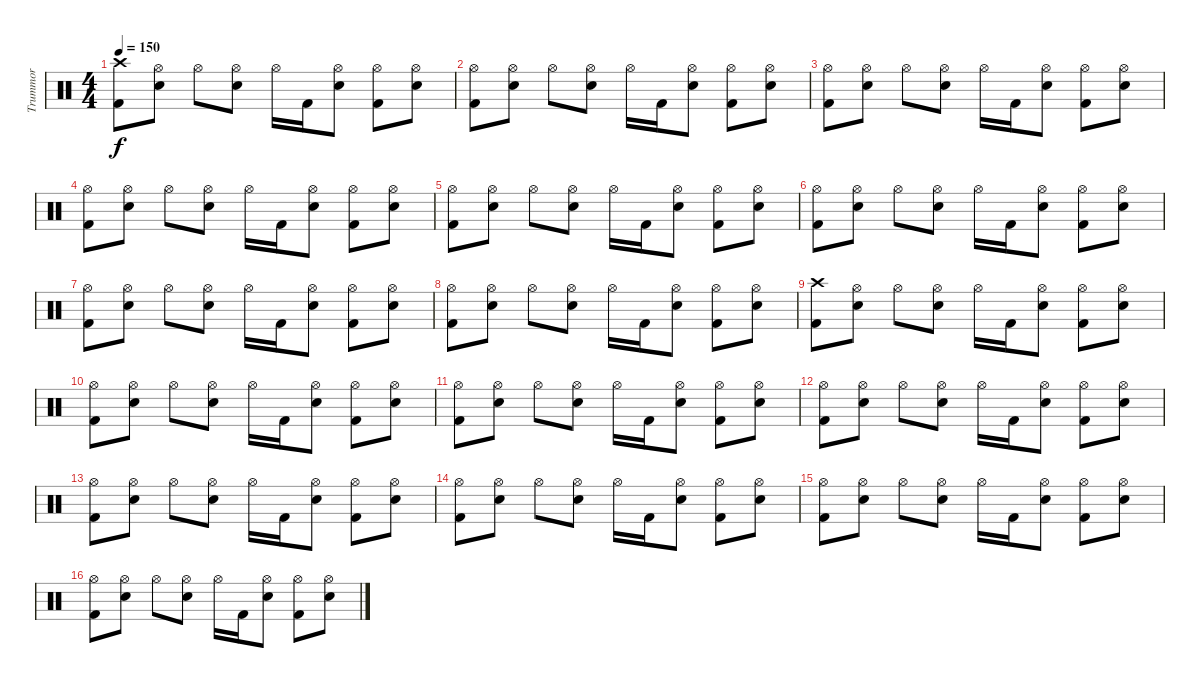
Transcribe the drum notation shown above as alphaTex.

\track ("Trummor" "Trummor") {instrument percussion}
\staff {score}
\articulation defaults
\ts (4 4)
\tempo 150
\clef neutral
\ks c
("Crash high (hit)" "Kick (hit) 2").8{dy f} ("Hi-Hat (open)" "Snare (hit) 2").8 "Hi-Hat (open)".8 ("Hi-Hat (open)" "Snare (hit) 2").8 "Hi-Hat (open)".16 "Kick (hit) 2".16 ("Hi-Hat (open)" "Snare (hit) 2").8 ("Hi-Hat (open)" "Kick (hit) 2").8 ("Hi-Hat (open)" "Snare (hit) 2").8 |
("Hi-Hat (open)" "Kick (hit) 2").8 ("Hi-Hat (open)" "Snare (hit) 2").8 "Hi-Hat (open)".8 ("Hi-Hat (open)" "Snare (hit) 2").8 "Hi-Hat (open)".16 "Kick (hit) 2".16 ("Hi-Hat (open)" "Snare (hit) 2").8 ("Hi-Hat (open)" "Kick (hit) 2").8 ("Hi-Hat (open)" "Snare (hit) 2").8 |
("Hi-Hat (open)" "Kick (hit) 2").8 ("Hi-Hat (open)" "Snare (hit) 2").8 "Hi-Hat (open)".8 ("Hi-Hat (open)" "Snare (hit) 2").8 "Hi-Hat (open)".16 "Kick (hit) 2".16 ("Hi-Hat (open)" "Snare (hit) 2").8 ("Hi-Hat (open)" "Kick (hit) 2").8 ("Hi-Hat (open)" "Snare (hit) 2").8 |
("Hi-Hat (open)" "Kick (hit) 2").8 ("Hi-Hat (open)" "Snare (hit) 2").8 "Hi-Hat (open)".8 ("Hi-Hat (open)" "Snare (hit) 2").8 "Hi-Hat (open)".16 "Kick (hit) 2".16 ("Hi-Hat (open)" "Snare (hit) 2").8 ("Hi-Hat (open)" "Kick (hit) 2").8 ("Hi-Hat (open)" "Snare (hit) 2").8 |
("Hi-Hat (open)" "Kick (hit) 2").8 ("Hi-Hat (open)" "Snare (hit) 2").8 "Hi-Hat (open)".8 ("Hi-Hat (open)" "Snare (hit) 2").8 "Hi-Hat (open)".16 "Kick (hit) 2".16 ("Hi-Hat (open)" "Snare (hit) 2").8 ("Hi-Hat (open)" "Kick (hit) 2").8 ("Hi-Hat (open)" "Snare (hit) 2").8 |
("Hi-Hat (open)" "Kick (hit) 2").8 ("Hi-Hat (open)" "Snare (hit) 2").8 "Hi-Hat (open)".8 ("Hi-Hat (open)" "Snare (hit) 2").8 "Hi-Hat (open)".16 "Kick (hit) 2".16 ("Hi-Hat (open)" "Snare (hit) 2").8 ("Hi-Hat (open)" "Kick (hit) 2").8 ("Hi-Hat (open)" "Snare (hit) 2").8 |
("Hi-Hat (open)" "Kick (hit) 2").8 ("Hi-Hat (open)" "Snare (hit) 2").8 "Hi-Hat (open)".8 ("Hi-Hat (open)" "Snare (hit) 2").8 "Hi-Hat (open)".16 "Kick (hit) 2".16 ("Hi-Hat (open)" "Snare (hit) 2").8 ("Hi-Hat (open)" "Kick (hit) 2").8 ("Hi-Hat (open)" "Snare (hit) 2").8 |
("Hi-Hat (open)" "Kick (hit) 2").8 ("Hi-Hat (open)" "Snare (hit) 2").8 "Hi-Hat (open)".8 ("Hi-Hat (open)" "Snare (hit) 2").8 "Hi-Hat (open)".16 "Kick (hit) 2".16 ("Hi-Hat (open)" "Snare (hit) 2").8 ("Hi-Hat (open)" "Kick (hit) 2").8 ("Hi-Hat (open)" "Snare (hit) 2").8 |
("Crash high (hit)" "Kick (hit) 2").8 ("Hi-Hat (open)" "Snare (hit) 2").8 "Hi-Hat (open)".8 ("Hi-Hat (open)" "Snare (hit) 2").8 "Hi-Hat (open)".16 "Kick (hit) 2".16 ("Hi-Hat (open)" "Snare (hit) 2").8 ("Hi-Hat (open)" "Kick (hit) 2").8 ("Hi-Hat (open)" "Snare (hit) 2").8 |
("Hi-Hat (open)" "Kick (hit) 2").8 ("Hi-Hat (open)" "Snare (hit) 2").8 "Hi-Hat (open)".8 ("Hi-Hat (open)" "Snare (hit) 2").8 "Hi-Hat (open)".16 "Kick (hit) 2".16 ("Hi-Hat (open)" "Snare (hit) 2").8 ("Hi-Hat (open)" "Kick (hit) 2").8 ("Hi-Hat (open)" "Snare (hit) 2").8 |
("Hi-Hat (open)" "Kick (hit) 2").8 ("Hi-Hat (open)" "Snare (hit) 2").8 "Hi-Hat (open)".8 ("Hi-Hat (open)" "Snare (hit) 2").8 "Hi-Hat (open)".16 "Kick (hit) 2".16 ("Hi-Hat (open)" "Snare (hit) 2").8 ("Hi-Hat (open)" "Kick (hit) 2").8 ("Hi-Hat (open)" "Snare (hit) 2").8 |
("Hi-Hat (open)" "Kick (hit) 2").8 ("Hi-Hat (open)" "Snare (hit) 2").8 "Hi-Hat (open)".8 ("Hi-Hat (open)" "Snare (hit) 2").8 "Hi-Hat (open)".16 "Kick (hit) 2".16 ("Hi-Hat (open)" "Snare (hit) 2").8 ("Hi-Hat (open)" "Kick (hit) 2").8 ("Hi-Hat (open)" "Snare (hit) 2").8 |
("Hi-Hat (open)" "Kick (hit) 2").8 ("Hi-Hat (open)" "Snare (hit) 2").8 "Hi-Hat (open)".8 ("Hi-Hat (open)" "Snare (hit) 2").8 "Hi-Hat (open)".16 "Kick (hit) 2".16 ("Hi-Hat (open)" "Snare (hit) 2").8 ("Hi-Hat (open)" "Kick (hit) 2").8 ("Hi-Hat (open)" "Snare (hit) 2").8 |
("Hi-Hat (open)" "Kick (hit) 2").8 ("Hi-Hat (open)" "Snare (hit) 2").8 "Hi-Hat (open)".8 ("Hi-Hat (open)" "Snare (hit) 2").8 "Hi-Hat (open)".16 "Kick (hit) 2".16 ("Hi-Hat (open)" "Snare (hit) 2").8 ("Hi-Hat (open)" "Kick (hit) 2").8 ("Hi-Hat (open)" "Snare (hit) 2").8 |
("Hi-Hat (open)" "Kick (hit) 2").8 ("Hi-Hat (open)" "Snare (hit) 2").8 "Hi-Hat (open)".8 ("Hi-Hat (open)" "Snare (hit) 2").8 "Hi-Hat (open)".16 "Kick (hit) 2".16 ("Hi-Hat (open)" "Snare (hit) 2").8 ("Hi-Hat (open)" "Kick (hit) 2").8 ("Hi-Hat (open)" "Snare (hit) 2").8 |
("Hi-Hat (open)" "Kick (hit) 2").8 ("Hi-Hat (open)" "Snare (hit) 2").8 "Hi-Hat (open)".8 ("Hi-Hat (open)" "Snare (hit) 2").8 "Hi-Hat (open)".16 "Kick (hit) 2".16 ("Hi-Hat (open)" "Snare (hit) 2").8 ("Hi-Hat (open)" "Kick (hit) 2").8 ("Hi-Hat (open)" "Snare (hit) 2").8
